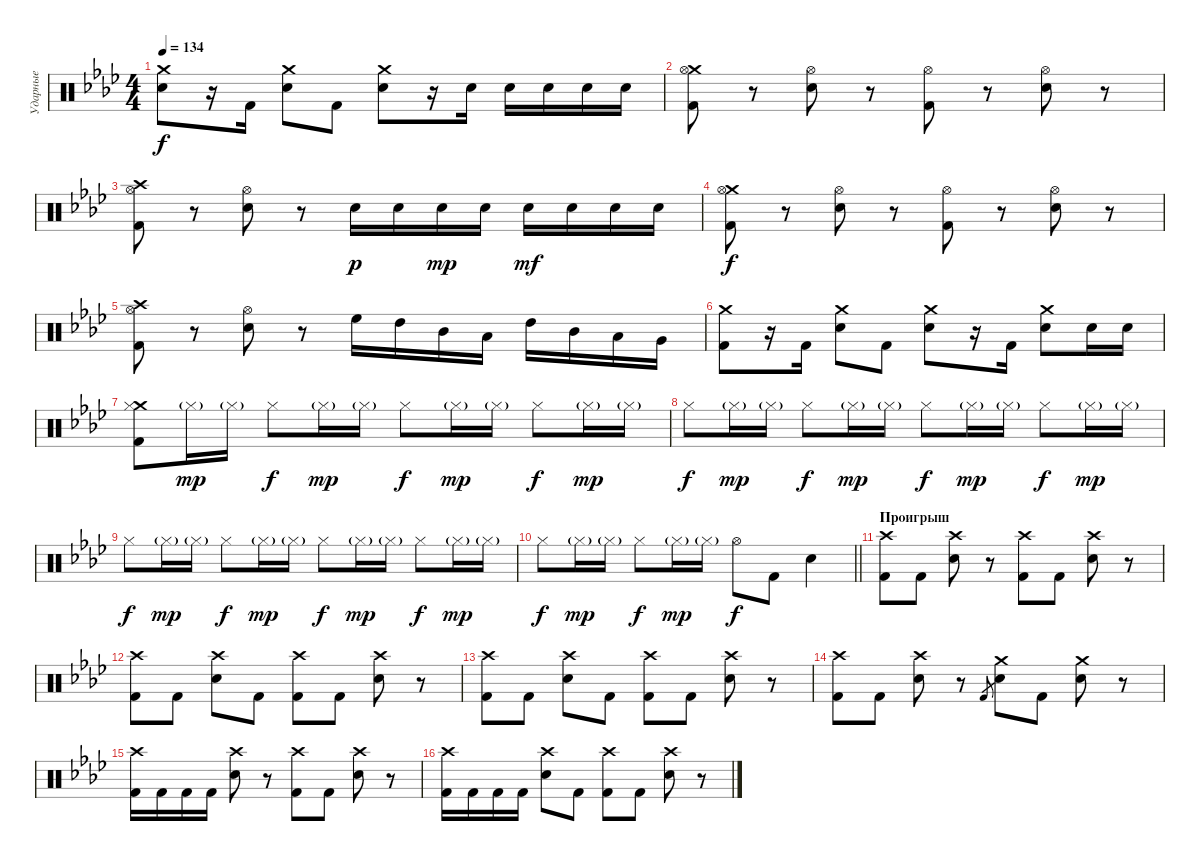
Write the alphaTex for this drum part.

\track ("Ударные" "Ударные") {instrument percussion}
\staff {score}
\articulation defaults
\ts (4 4)
\tempo 134
\clef neutral
\ks fminor
("Crash medium (hit)" "Electric Snare (hit)").8{dy f} r.16 "Kick (hit) 2".16 ("Crash medium (hit)" "Electric Snare (hit)").8 "Kick (hit) 2".8 ("Crash medium (hit)" "Electric Snare (hit)").8 r.16 "Electric Snare (hit)".16 "Electric Snare (hit)".16 "Electric Snare (hit)".16 "Electric Snare (hit)".16 "Electric Snare (hit)".16 |
("Crash medium (hit)" "Hi-Hat (open)" "Kick (hit) 2").8 r.8 ("Hi-Hat (open)" "Electric Snare (hit)").8 r.8 ("Hi-Hat (open)" "Kick (hit) 2").8 r.8 ("Hi-Hat (open)" "Electric Snare (hit)").8 r.8 |
("Crash high (hit)" "Hi-Hat (open)" "Kick (hit) 2").8 r.8 ("Hi-Hat (open)" "Electric Snare (hit)").8 r.8 "Electric Snare (hit)".16{dy p} "Electric Snare (hit)".16 "Electric Snare (hit)".16{dy mp} "Electric Snare (hit)".16 "Electric Snare (hit)".16{dy mf} "Electric Snare (hit)".16 "Electric Snare (hit)".16 "Electric Snare (hit)".16 |
("Crash medium (hit)" "Hi-Hat (open)" "Kick (hit) 2").8{dy f} r.8 ("Hi-Hat (open)" "Electric Snare (hit)").8 r.8 ("Hi-Hat (open)" "Kick (hit) 2").8 r.8 ("Hi-Hat (open)" "Electric Snare (hit)").8 r.8 |
("Crash high (hit)" "Hi-Hat (open)" "Kick (hit) 2").8 r.8 ("Hi-Hat (open)" "Electric Snare (hit)").8 r.8 "High Floor Tom (hit)".16 "High Tom (hit)".16 "Mid Tom (hit)".16 "Low Tom (hit)".16 "High Tom (hit)".16 "Mid Tom (hit)".16 "Low Tom (hit)".16 "Very Low Tom (hit)".16 |
("Crash medium (hit)" "Kick (hit) 2").8 r.16 "Kick (hit) 2".16 ("Crash medium (hit)" "Electric Snare (hit)").8 "Kick (hit) 2".8 ("Crash medium (hit)" "Electric Snare (hit)").8 r.16 "Kick (hit) 2".16 ("Crash medium (hit)" "Electric Snare (hit)").8 "Electric Snare (hit)".16 "Electric Snare (hit)".16 |
("Crash medium (hit)" "Kick (hit) 2" "Hi-Hat (closed)").8 "Hi-Hat (closed)"{g}.16{dy mp} "Hi-Hat (closed)"{g}.16 "Hi-Hat (closed)".8{dy f} "Hi-Hat (closed)"{g}.16{dy mp} "Hi-Hat (closed)"{g}.16 "Hi-Hat (closed)".8{dy f} "Hi-Hat (closed)"{g}.16{dy mp} "Hi-Hat (closed)"{g}.16 "Hi-Hat (closed)".8{dy f} "Hi-Hat (closed)"{g}.16{dy mp} "Hi-Hat (closed)"{g}.16 |
"Hi-Hat (closed)".8{dy f} "Hi-Hat (closed)"{g}.16{dy mp} "Hi-Hat (closed)"{g}.16 "Hi-Hat (closed)".8{dy f} "Hi-Hat (closed)"{g}.16{dy mp} "Hi-Hat (closed)"{g}.16 "Hi-Hat (closed)".8{dy f} "Hi-Hat (closed)"{g}.16{dy mp} "Hi-Hat (closed)"{g}.16 "Hi-Hat (closed)".8{dy f} "Hi-Hat (closed)"{g}.16{dy mp} "Hi-Hat (closed)"{g}.16 |
"Hi-Hat (closed)".8{dy f} "Hi-Hat (closed)"{g}.16{dy mp} "Hi-Hat (closed)"{g}.16 "Hi-Hat (closed)".8{dy f} "Hi-Hat (closed)"{g}.16{dy mp} "Hi-Hat (closed)"{g}.16 "Hi-Hat (closed)".8{dy f} "Hi-Hat (closed)"{g}.16{dy mp} "Hi-Hat (closed)"{g}.16 "Hi-Hat (closed)".8{dy f} "Hi-Hat (closed)"{g}.16{dy mp} "Hi-Hat (closed)"{g}.16 |
\barLineRight lightlight "Hi-Hat (closed)".8{dy f} "Hi-Hat (closed)"{g}.16{dy mp} "Hi-Hat (closed)"{g}.16 "Hi-Hat (closed)".8{dy f} "Hi-Hat (closed)"{g}.16{dy mp} "Hi-Hat (closed)"{g}.16 "Hi-Hat (open)".8{dy f} "Kick (hit) 2".8 "Electric Snare (hit)".4
|
\section ("" "Проигрыш")
("Crash high (hit)" "Kick (hit) 2").8 "Kick (hit) 2".8 ("Crash high (hit)" "Electric Snare (hit)").8 r.8 ("Crash high (hit)" "Kick (hit) 2").8 "Kick (hit) 2".8 ("Crash high (hit)" "Electric Snare (hit)").8 r.8 |
("Crash high (hit)" "Kick (hit) 2").8 "Kick (hit) 2".8 ("Crash high (hit)" "Electric Snare (hit)").8 "Kick (hit) 2".8 ("Crash high (hit)" "Kick (hit) 2").8 "Kick (hit) 2".8 ("Crash high (hit)" "Electric Snare (hit)").8 r.8 |
("Crash high (hit)" "Kick (hit) 2").8 "Kick (hit) 2".8 ("Crash high (hit)" "Electric Snare (hit)").8 "Kick (hit) 2".8 ("Crash high (hit)" "Kick (hit) 2").8 "Kick (hit) 2".8 ("Crash high (hit)" "Electric Snare (hit)").8 r.8 |
("Crash high (hit)" "Kick (hit) 2").8 "Kick (hit) 2".8 ("Crash high (hit)" "Electric Snare (hit)").8 r.8 "Kick (hit) 2".8{gr} ("Crash medium (hit)" "Electric Snare (hit)").8 "Kick (hit) 2".8 ("Crash medium (hit)" "Electric Snare (hit)").8 r.8 |
("Crash high (hit)" "Kick (hit) 2").16 "Kick (hit) 2".16 "Kick (hit) 2".16 "Kick (hit) 2".16 ("Crash high (hit)" "Electric Snare (hit)").8 r.8 ("Crash high (hit)" "Kick (hit) 2").8 "Kick (hit) 2".8 ("Crash high (hit)" "Electric Snare (hit)").8 r.8 |
("Crash high (hit)" "Kick (hit) 2").16 "Kick (hit) 2".16 "Kick (hit) 2".16 "Kick (hit) 2".16 ("Crash high (hit)" "Electric Snare (hit)").8 "Kick (hit) 2".8 ("Crash high (hit)" "Kick (hit) 2").8 "Kick (hit) 2".8 ("Crash high (hit)" "Electric Snare (hit)").8 r.8
